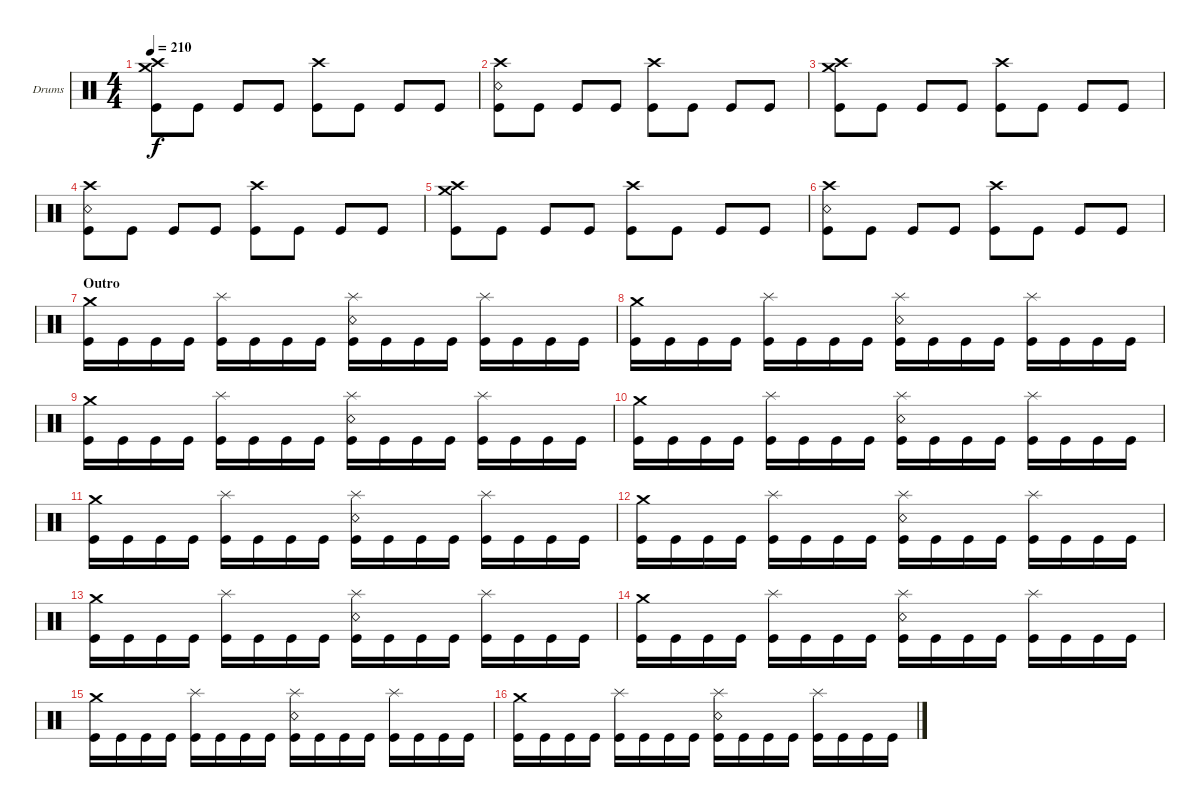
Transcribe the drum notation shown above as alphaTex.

\defaultSystemsLayout 4
\bracketExtendMode groupsimilarinstruments
\firstSystemTrackNameOrientation horizontal
\otherSystemsTrackNameOrientation horizontal
\track ("Drums" "Drums") {instrument percussion}
\staff {score}
\articulation defaults
\ts (4 4)
\tempo 210
\clef neutral
\ks c
("Crash high (hit)" "Kick (hit)" "Crash medium (hit)").8{dy f} "Kick (hit)".8 "Kick (hit)".8 "Kick (hit)".8 ("Kick (hit)" "Crash high (hit)").8 "Kick (hit)".8 "Kick (hit)".8 "Kick (hit)".8 |
("Crash high (hit)" "Kick (hit)" "Snare (rim shot)").8 "Kick (hit)".8 "Kick (hit)".8 "Kick (hit)".8 ("Kick (hit)" "Crash high (hit)").8 "Kick (hit)".8 "Kick (hit)".8 "Kick (hit)".8 |
("Crash high (hit)" "Kick (hit)" "Crash medium (hit)").8 "Kick (hit)".8 "Kick (hit)".8 "Kick (hit)".8 ("Kick (hit)" "Crash high (hit)").8 "Kick (hit)".8 "Kick (hit)".8 "Kick (hit)".8 |
("Crash high (hit)" "Kick (hit)" "Snare (rim shot)").8 "Kick (hit)".8 "Kick (hit)".8 "Kick (hit)".8 ("Kick (hit)" "Crash high (hit)").8 "Kick (hit)".8 "Kick (hit)".8 "Kick (hit)".8 |
("Crash high (hit)" "Kick (hit)" "Crash medium (hit)").8 "Kick (hit)".8 "Kick (hit)".8 "Kick (hit)".8 ("Kick (hit)" "Crash high (hit)").8 "Kick (hit)".8 "Kick (hit)".8 "Kick (hit)".8 |
("Crash high (hit)" "Kick (hit)" "Snare (rim shot)").8 "Kick (hit)".8 "Kick (hit)".8 "Kick (hit)".8 ("Kick (hit)" "Crash high (hit)").8 "Kick (hit)".8 "Kick (hit)".8 "Kick (hit)".8 |
\section ("" "Outro")
("Kick (hit)" "Crash medium (hit)").16 "Kick (hit)".16 "Kick (hit)".16 "Kick (hit)".16 ("Kick (hit)" "Splash (hit)").16 "Kick (hit)".16 "Kick (hit)".16 "Kick (hit)".16 ("Kick (hit)" "Snare (rim shot)" "Splash (hit)").16 "Kick (hit)".16 "Kick (hit)".16 "Kick (hit)".16 ("Kick (hit)" "Splash (hit)").16 "Kick (hit)".16 "Kick (hit)".16 "Kick (hit)".16 |
("Kick (hit)" "Crash medium (hit)").16 "Kick (hit)".16 "Kick (hit)".16 "Kick (hit)".16 ("Kick (hit)" "Splash (hit)").16 "Kick (hit)".16 "Kick (hit)".16 "Kick (hit)".16 ("Kick (hit)" "Snare (rim shot)" "Splash (hit)").16 "Kick (hit)".16 "Kick (hit)".16 "Kick (hit)".16 ("Kick (hit)" "Splash (hit)").16 "Kick (hit)".16 "Kick (hit)".16 "Kick (hit)".16 |
("Kick (hit)" "Crash medium (hit)").16 "Kick (hit)".16 "Kick (hit)".16 "Kick (hit)".16 ("Kick (hit)" "Splash (hit)").16 "Kick (hit)".16 "Kick (hit)".16 "Kick (hit)".16 ("Kick (hit)" "Snare (rim shot)" "Splash (hit)").16 "Kick (hit)".16 "Kick (hit)".16 "Kick (hit)".16 ("Kick (hit)" "Splash (hit)").16 "Kick (hit)".16 "Kick (hit)".16 "Kick (hit)".16 |
("Kick (hit)" "Crash medium (hit)").16 "Kick (hit)".16 "Kick (hit)".16 "Kick (hit)".16 ("Kick (hit)" "Splash (hit)").16 "Kick (hit)".16 "Kick (hit)".16 "Kick (hit)".16 ("Kick (hit)" "Snare (rim shot)" "Splash (hit)").16 "Kick (hit)".16 "Kick (hit)".16 "Kick (hit)".16 ("Kick (hit)" "Splash (hit)").16 "Kick (hit)".16 "Kick (hit)".16 "Kick (hit)".16 |
("Kick (hit)" "Crash medium (hit)").16 "Kick (hit)".16 "Kick (hit)".16 "Kick (hit)".16 ("Kick (hit)" "Splash (hit)").16 "Kick (hit)".16 "Kick (hit)".16 "Kick (hit)".16 ("Kick (hit)" "Snare (rim shot)" "Splash (hit)").16 "Kick (hit)".16 "Kick (hit)".16 "Kick (hit)".16 ("Kick (hit)" "Splash (hit)").16 "Kick (hit)".16 "Kick (hit)".16 "Kick (hit)".16 |
("Kick (hit)" "Crash medium (hit)").16 "Kick (hit)".16 "Kick (hit)".16 "Kick (hit)".16 ("Kick (hit)" "Splash (hit)").16 "Kick (hit)".16 "Kick (hit)".16 "Kick (hit)".16 ("Kick (hit)" "Snare (rim shot)" "Splash (hit)").16 "Kick (hit)".16 "Kick (hit)".16 "Kick (hit)".16 ("Kick (hit)" "Splash (hit)").16 "Kick (hit)".16 "Kick (hit)".16 "Kick (hit)".16 |
("Kick (hit)" "Crash medium (hit)").16 "Kick (hit)".16 "Kick (hit)".16 "Kick (hit)".16 ("Kick (hit)" "Splash (hit)").16 "Kick (hit)".16 "Kick (hit)".16 "Kick (hit)".16 ("Kick (hit)" "Snare (rim shot)" "Splash (hit)").16 "Kick (hit)".16 "Kick (hit)".16 "Kick (hit)".16 ("Kick (hit)" "Splash (hit)").16 "Kick (hit)".16 "Kick (hit)".16 "Kick (hit)".16 |
("Kick (hit)" "Crash medium (hit)").16 "Kick (hit)".16 "Kick (hit)".16 "Kick (hit)".16 ("Kick (hit)" "Splash (hit)").16 "Kick (hit)".16 "Kick (hit)".16 "Kick (hit)".16 ("Kick (hit)" "Snare (rim shot)" "Splash (hit)").16 "Kick (hit)".16 "Kick (hit)".16 "Kick (hit)".16 ("Kick (hit)" "Splash (hit)").16 "Kick (hit)".16 "Kick (hit)".16 "Kick (hit)".16 |
("Kick (hit)" "Crash medium (hit)").16 "Kick (hit)".16 "Kick (hit)".16 "Kick (hit)".16 ("Kick (hit)" "Splash (hit)").16 "Kick (hit)".16 "Kick (hit)".16 "Kick (hit)".16 ("Kick (hit)" "Snare (rim shot)" "Splash (hit)").16 "Kick (hit)".16 "Kick (hit)".16 "Kick (hit)".16 ("Kick (hit)" "Splash (hit)").16 "Kick (hit)".16 "Kick (hit)".16 "Kick (hit)".16 |
("Kick (hit)" "Crash medium (hit)").16 "Kick (hit)".16 "Kick (hit)".16 "Kick (hit)".16 ("Kick (hit)" "Splash (hit)").16 "Kick (hit)".16 "Kick (hit)".16 "Kick (hit)".16 ("Kick (hit)" "Snare (rim shot)" "Splash (hit)").16 "Kick (hit)".16 "Kick (hit)".16 "Kick (hit)".16 ("Kick (hit)" "Splash (hit)").16 "Kick (hit)".16 "Kick (hit)".16 "Kick (hit)".16
